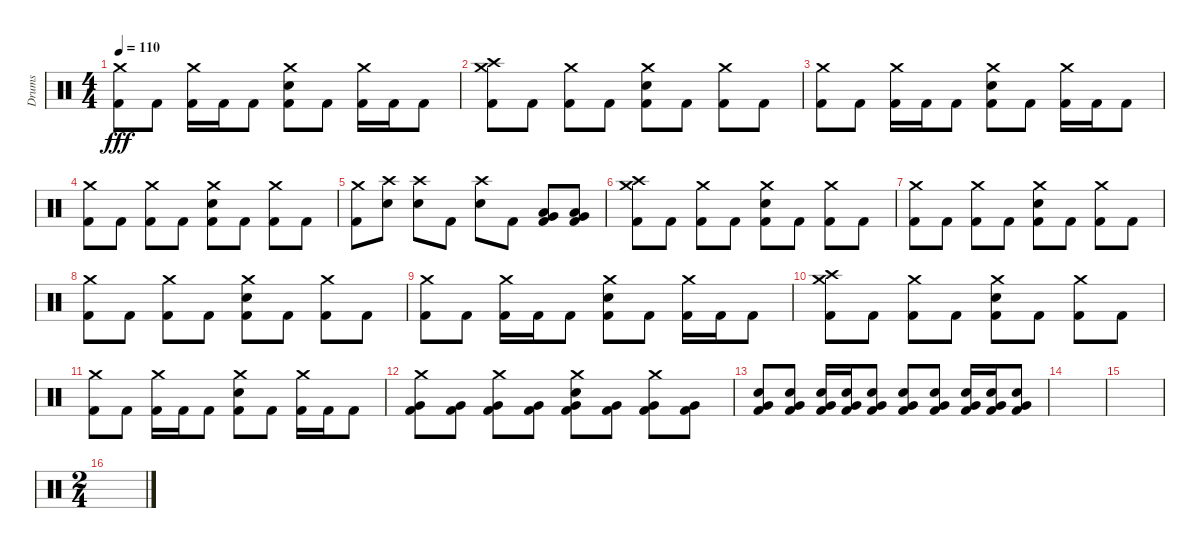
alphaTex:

\track ("Drums" "Drums") {instrument percussion}
\staff {score}
\articulation defaults
\ts (4 4)
\tempo 110
\clef neutral
\ks c
("Crash medium (hit)" "Kick (hit) 2").8{dy fff} "Kick (hit) 2".8 ("Crash medium (hit)" "Kick (hit) 2").16 "Kick (hit) 2".16 "Kick (hit) 2".8 ("Crash medium (hit)" "Snare (hit) 2" "Kick (hit) 2").8 "Kick (hit) 2".8 ("Crash medium (hit)" "Kick (hit) 2").16 "Kick (hit) 2".16 "Kick (hit) 2".8 |
("Crash high (hit)" "Crash medium (hit)" "Kick (hit) 2").8 "Kick (hit) 2".8 ("Crash medium (hit)" "Kick (hit) 2").8 "Kick (hit) 2".8 ("Crash medium (hit)" "Snare (hit) 2" "Kick (hit) 2").8 "Kick (hit) 2".8 ("Crash medium (hit)" "Kick (hit) 2").8 "Kick (hit) 2".8 |
("Crash medium (hit)" "Kick (hit) 2").8 "Kick (hit) 2".8 ("Crash medium (hit)" "Kick (hit) 2").16 "Kick (hit) 2".16 "Kick (hit) 2".8 ("Crash medium (hit)" "Snare (hit) 2" "Kick (hit) 2").8 "Kick (hit) 2".8 ("Crash medium (hit)" "Kick (hit) 2").16 "Kick (hit) 2".16 "Kick (hit) 2".8 |
("Crash medium (hit)" "Kick (hit) 2").8 "Kick (hit) 2".8 ("Crash medium (hit)" "Kick (hit) 2").8 "Kick (hit) 2".8 ("Crash medium (hit)" "Snare (hit) 2" "Kick (hit) 2").8 "Kick (hit) 2".8 ("Crash medium (hit)" "Kick (hit) 2").8 "Kick (hit) 2".8 |
("Crash medium (hit)" "Kick (hit) 2").8 ("Crash high (hit)" "Snare (hit) 2").8 ("Crash high (hit)" "Snare (hit) 2").8 "Kick (hit) 2".8 ("Crash high (hit)" "Snare (hit) 2").8 "Kick (hit) 2".8 ("Low Tom (hit)" "Very Low Tom (hit)" "Kick (hit) 2").8 ("Very Low Tom (hit)" "Low Floor Tom (hit)" "Kick (hit) 2").8 |
("Crash medium (hit)" "Crash high (hit)" "Kick (hit) 2").8 "Kick (hit) 2".8 ("Crash medium (hit)" "Kick (hit) 2").8 "Kick (hit) 2".8 ("Crash medium (hit)" "Snare (hit) 2" "Kick (hit) 2").8 "Kick (hit) 2".8 ("Crash medium (hit)" "Kick (hit) 2").8 "Kick (hit) 2".8 |
("Crash medium (hit)" "Kick (hit) 2").8 "Kick (hit) 2".8 ("Crash medium (hit)" "Kick (hit) 2").8 "Kick (hit) 2".8 ("Crash medium (hit)" "Snare (hit) 2" "Kick (hit) 2").8 "Kick (hit) 2".8 ("Crash medium (hit)" "Kick (hit) 2").8 "Kick (hit) 2".8 |
("Crash medium (hit)" "Kick (hit) 2").8 "Kick (hit) 2".8 ("Crash medium (hit)" "Kick (hit) 2").8 "Kick (hit) 2".8 ("Crash medium (hit)" "Snare (hit) 2" "Kick (hit) 2").8 "Kick (hit) 2".8 ("Crash medium (hit)" "Kick (hit) 2").8 "Kick (hit) 2".8 |
("Crash medium (hit)" "Kick (hit) 2").8 "Kick (hit) 2".8 ("Crash medium (hit)" "Kick (hit) 2").16 "Kick (hit) 2".16 "Kick (hit) 2".8 ("Crash medium (hit)" "Snare (hit) 2" "Kick (hit) 2").8 "Kick (hit) 2".8 ("Crash medium (hit)" "Kick (hit) 2").16 "Kick (hit) 2".16 "Kick (hit) 2".8 |
("Crash high (hit)" "Crash medium (hit)" "Kick (hit) 2").8 "Kick (hit) 2".8 ("Crash medium (hit)" "Kick (hit) 2").8 "Kick (hit) 2".8 ("Crash medium (hit)" "Snare (hit) 2" "Kick (hit) 2").8 "Kick (hit) 2".8 ("Crash medium (hit)" "Kick (hit) 2").8 "Kick (hit) 2".8 |
("Crash medium (hit)" "Kick (hit) 2").8 "Kick (hit) 2".8 ("Crash medium (hit)" "Kick (hit) 2").16 "Kick (hit) 2".16 "Kick (hit) 2".8 ("Crash medium (hit)" "Snare (hit) 2" "Kick (hit) 2").8 "Kick (hit) 2".8 ("Crash medium (hit)" "Kick (hit) 2").16 "Kick (hit) 2".16 "Kick (hit) 2".8 |
("Crash medium (hit)" "Very Low Tom (hit)" "Kick (hit) 2").8 ("Very Low Tom (hit)" "Kick (hit) 2").8 ("Crash medium (hit)" "Very Low Tom (hit)" "Kick (hit) 2").8 ("Very Low Tom (hit)" "Kick (hit) 2").8 ("Crash medium (hit)" "Electric Snare (hit)" "Very Low Tom (hit)" "Kick (hit) 2").8 ("Very Low Tom (hit)" "Kick (hit) 2").8 ("Crash medium (hit)" "Very Low Tom (hit)" "Kick (hit) 2").8 ("Very Low Tom (hit)" "Kick (hit) 2").8 |
("Snare (hit) 2" "Very Low Tom (hit)" "Kick (hit) 2").8 ("Snare (hit) 2" "Very Low Tom (hit)" "Kick (hit) 2").8 ("Snare (hit) 2" "Very Low Tom (hit)" "Kick (hit) 2").16 ("Snare (hit) 2" "Very Low Tom (hit)" "Kick (hit) 2").16 ("Snare (hit) 2" "Very Low Tom (hit)" "Kick (hit) 2").8 ("Snare (hit) 2" "Very Low Tom (hit)" "Kick (hit) 2").8 ("Snare (hit) 2" "Very Low Tom (hit)" "Kick (hit) 2").8 ("Snare (hit) 2" "Very Low Tom (hit)" "Kick (hit) 2").16 ("Snare (hit) 2" "Very Low Tom (hit)" "Kick (hit) 2").16 ("Snare (hit) 2" "Very Low Tom (hit)" "Kick (hit) 2").8 |
|
|
\ts (2 4)
